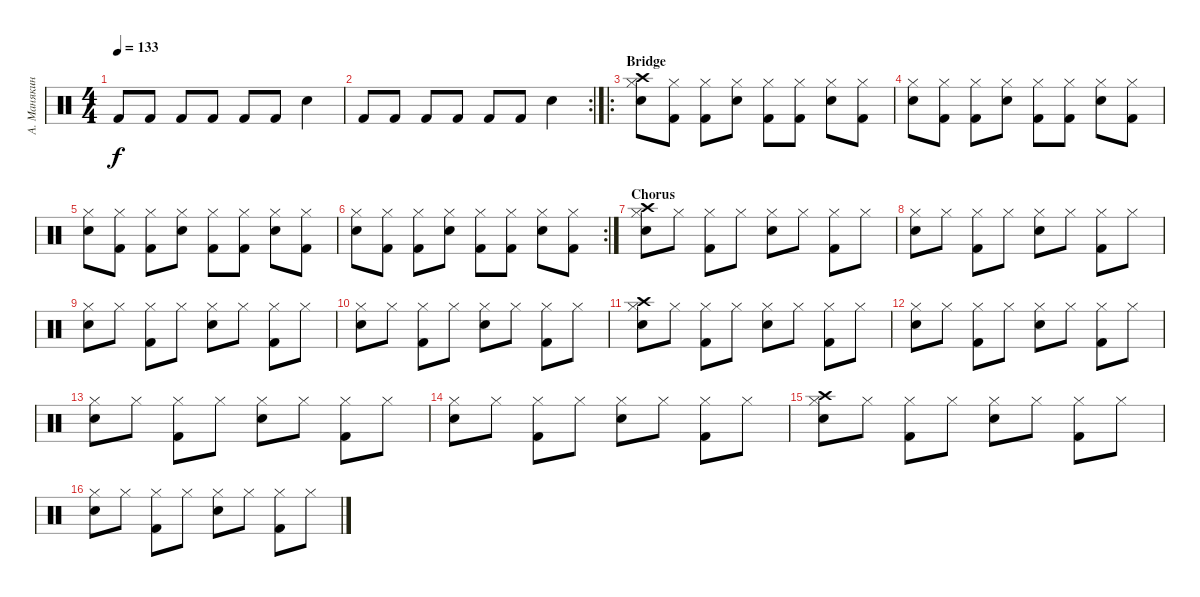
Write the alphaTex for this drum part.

\track ("А. Манякин" "А. Манякин") {instrument percussion}
\staff {score}
\articulation defaults
\ts (4 4)
\tempo 133
\clef neutral
\ks c "Kick (hit) 2".8{dy f} "Kick (hit) 2".8 "Kick (hit) 2".8 "Kick (hit) 2".8 "Kick (hit) 2".8 "Kick (hit) 2".8 "Snare (hit) 2".4
|
\rc 2 "Kick (hit) 2".8 "Kick (hit) 2".8 "Kick (hit) 2".8 "Kick (hit) 2".8 "Kick (hit) 2".8 "Kick (hit) 2".8 "Snare (hit) 2".4
|
\ro
\section ("" "Bridge")
("Hi-Hat (closed)" "Snare (hit) 2" "Crash high (hit)").8 ("Hi-Hat (closed)" "Kick (hit) 2").8 ("Hi-Hat (closed)" "Kick (hit) 2").8 ("Hi-Hat (closed)" "Snare (hit) 2").8 ("Hi-Hat (closed)" "Kick (hit) 2").8 ("Hi-Hat (closed)" "Kick (hit) 2").8 ("Hi-Hat (closed)" "Snare (hit) 2").8 ("Hi-Hat (closed)" "Kick (hit) 2").8 |
("Hi-Hat (closed)" "Snare (hit) 2").8 ("Hi-Hat (closed)" "Kick (hit) 2").8 ("Hi-Hat (closed)" "Kick (hit) 2").8 ("Hi-Hat (closed)" "Snare (hit) 2").8 ("Hi-Hat (closed)" "Kick (hit) 2").8 ("Hi-Hat (closed)" "Kick (hit) 2").8 ("Hi-Hat (closed)" "Snare (hit) 2").8 ("Hi-Hat (closed)" "Kick (hit) 2").8 |
("Hi-Hat (closed)" "Snare (hit) 2").8 ("Hi-Hat (closed)" "Kick (hit) 2").8 ("Hi-Hat (closed)" "Kick (hit) 2").8 ("Hi-Hat (closed)" "Snare (hit) 2").8 ("Hi-Hat (closed)" "Kick (hit) 2").8 ("Hi-Hat (closed)" "Kick (hit) 2").8 ("Hi-Hat (closed)" "Snare (hit) 2").8 ("Hi-Hat (closed)" "Kick (hit) 2").8 |
\rc 2
("Hi-Hat (closed)" "Snare (hit) 2").8 ("Hi-Hat (closed)" "Kick (hit) 2").8 ("Hi-Hat (closed)" "Kick (hit) 2").8 ("Hi-Hat (closed)" "Snare (hit) 2").8 ("Hi-Hat (closed)" "Kick (hit) 2").8 ("Hi-Hat (closed)" "Kick (hit) 2").8 ("Hi-Hat (closed)" "Snare (hit) 2").8 ("Hi-Hat (closed)" "Kick (hit) 2").8 |
\section ("" "Chorus")
("Hi-Hat (closed)" "Snare (hit) 2" "Crash high (hit)").8 "Hi-Hat (closed)".8 ("Hi-Hat (closed)" "Kick (hit) 2").8 "Hi-Hat (closed)".8 ("Hi-Hat (closed)" "Snare (hit) 2").8 "Hi-Hat (closed)".8 ("Hi-Hat (closed)" "Kick (hit) 2").8 "Hi-Hat (closed)".8 |
("Hi-Hat (closed)" "Snare (hit) 2").8 "Hi-Hat (closed)".8 ("Hi-Hat (closed)" "Kick (hit) 2").8 "Hi-Hat (closed)".8 ("Hi-Hat (closed)" "Snare (hit) 2").8 "Hi-Hat (closed)".8 ("Hi-Hat (closed)" "Kick (hit) 2").8 "Hi-Hat (closed)".8 |
("Hi-Hat (closed)" "Snare (hit) 2").8 "Hi-Hat (closed)".8 ("Hi-Hat (closed)" "Kick (hit) 2").8 "Hi-Hat (closed)".8 ("Hi-Hat (closed)" "Snare (hit) 2").8 "Hi-Hat (closed)".8 ("Hi-Hat (closed)" "Kick (hit) 2").8 "Hi-Hat (closed)".8 |
("Hi-Hat (closed)" "Snare (hit) 2").8 "Hi-Hat (closed)".8 ("Hi-Hat (closed)" "Kick (hit) 2").8 "Hi-Hat (closed)".8 ("Hi-Hat (closed)" "Snare (hit) 2").8 "Hi-Hat (closed)".8 ("Hi-Hat (closed)" "Kick (hit) 2").8 "Hi-Hat (closed)".8 |
("Hi-Hat (closed)" "Snare (hit) 2" "Crash high (hit)").8 "Hi-Hat (closed)".8 ("Hi-Hat (closed)" "Kick (hit) 2").8 "Hi-Hat (closed)".8 ("Hi-Hat (closed)" "Snare (hit) 2").8 "Hi-Hat (closed)".8 ("Hi-Hat (closed)" "Kick (hit) 2").8 "Hi-Hat (closed)".8 |
("Hi-Hat (closed)" "Snare (hit) 2").8 "Hi-Hat (closed)".8 ("Hi-Hat (closed)" "Kick (hit) 2").8 "Hi-Hat (closed)".8 ("Hi-Hat (closed)" "Snare (hit) 2").8 "Hi-Hat (closed)".8 ("Hi-Hat (closed)" "Kick (hit) 2").8 "Hi-Hat (closed)".8 |
("Hi-Hat (closed)" "Snare (hit) 2").8 "Hi-Hat (closed)".8 ("Hi-Hat (closed)" "Kick (hit) 2").8 "Hi-Hat (closed)".8 ("Hi-Hat (closed)" "Snare (hit) 2").8 "Hi-Hat (closed)".8 ("Hi-Hat (closed)" "Kick (hit) 2").8 "Hi-Hat (closed)".8 |
("Hi-Hat (closed)" "Snare (hit) 2").8 "Hi-Hat (closed)".8 ("Hi-Hat (closed)" "Kick (hit) 2").8 "Hi-Hat (closed)".8 ("Hi-Hat (closed)" "Snare (hit) 2").8 "Hi-Hat (closed)".8 ("Hi-Hat (closed)" "Kick (hit) 2").8 "Hi-Hat (closed)".8 |
("Hi-Hat (closed)" "Snare (hit) 2" "Crash high (hit)").8 "Hi-Hat (closed)".8 ("Hi-Hat (closed)" "Kick (hit) 2").8 "Hi-Hat (closed)".8 ("Hi-Hat (closed)" "Snare (hit) 2").8 "Hi-Hat (closed)".8 ("Hi-Hat (closed)" "Kick (hit) 2").8 "Hi-Hat (closed)".8 |
("Hi-Hat (closed)" "Snare (hit) 2").8 "Hi-Hat (closed)".8 ("Hi-Hat (closed)" "Kick (hit) 2").8 "Hi-Hat (closed)".8 ("Hi-Hat (closed)" "Snare (hit) 2").8 "Hi-Hat (closed)".8 ("Hi-Hat (closed)" "Kick (hit) 2").8 "Hi-Hat (closed)".8
